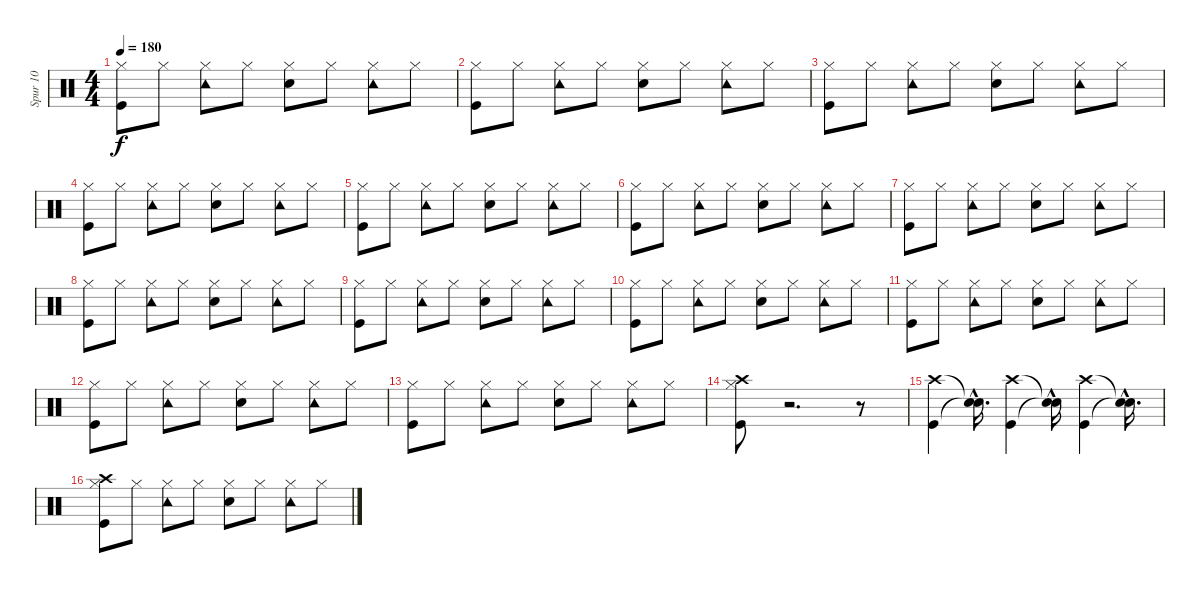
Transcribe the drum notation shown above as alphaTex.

\track ("Spur 10" "Spur 10") {instrument percussion}
\staff {score}
\articulation defaults
\ts (4 4)
\tempo 180
\clef neutral
\ks c
("Hi-Hat (closed)" "Kick (hit)").8{dy f} "Hi-Hat (closed)".8 ("Tambourine (hit)" "Hi-Hat (closed)").8 "Hi-Hat (closed)".8 ("Electric Snare (hit)" "Hi-Hat (closed)").8 "Hi-Hat (closed)".8 ("Tambourine (hit)" "Hi-Hat (closed)").8 "Hi-Hat (closed)".8 |
("Hi-Hat (closed)" "Kick (hit)").8 "Hi-Hat (closed)".8 ("Tambourine (hit)" "Hi-Hat (closed)").8 "Hi-Hat (closed)".8 ("Electric Snare (hit)" "Hi-Hat (closed)").8 "Hi-Hat (closed)".8 ("Tambourine (hit)" "Hi-Hat (closed)").8 "Hi-Hat (closed)".8 |
("Hi-Hat (closed)" "Kick (hit)").8 "Hi-Hat (closed)".8 ("Tambourine (hit)" "Hi-Hat (closed)").8 "Hi-Hat (closed)".8 ("Electric Snare (hit)" "Hi-Hat (closed)").8 "Hi-Hat (closed)".8 ("Tambourine (hit)" "Hi-Hat (closed)").8 "Hi-Hat (closed)".8 |
("Hi-Hat (closed)" "Kick (hit)").8 "Hi-Hat (closed)".8 ("Tambourine (hit)" "Hi-Hat (closed)").8 "Hi-Hat (closed)".8 ("Electric Snare (hit)" "Hi-Hat (closed)").8 "Hi-Hat (closed)".8 ("Tambourine (hit)" "Hi-Hat (closed)").8 "Hi-Hat (closed)".8 |
("Hi-Hat (closed)" "Kick (hit)").8 "Hi-Hat (closed)".8 ("Tambourine (hit)" "Hi-Hat (closed)").8 "Hi-Hat (closed)".8 ("Electric Snare (hit)" "Hi-Hat (closed)").8 "Hi-Hat (closed)".8 ("Tambourine (hit)" "Hi-Hat (closed)").8 "Hi-Hat (closed)".8 |
("Hi-Hat (closed)" "Kick (hit)").8 "Hi-Hat (closed)".8 ("Tambourine (hit)" "Hi-Hat (closed)").8 "Hi-Hat (closed)".8 ("Electric Snare (hit)" "Hi-Hat (closed)").8 "Hi-Hat (closed)".8 ("Tambourine (hit)" "Hi-Hat (closed)").8 "Hi-Hat (closed)".8 |
("Hi-Hat (closed)" "Kick (hit)").8 "Hi-Hat (closed)".8 ("Tambourine (hit)" "Hi-Hat (closed)").8 "Hi-Hat (closed)".8 ("Electric Snare (hit)" "Hi-Hat (closed)").8 "Hi-Hat (closed)".8 ("Tambourine (hit)" "Hi-Hat (closed)").8 "Hi-Hat (closed)".8 |
("Hi-Hat (closed)" "Kick (hit)").8 "Hi-Hat (closed)".8 ("Tambourine (hit)" "Hi-Hat (closed)").8 "Hi-Hat (closed)".8 ("Electric Snare (hit)" "Hi-Hat (closed)").8 "Hi-Hat (closed)".8 ("Tambourine (hit)" "Hi-Hat (closed)").8 "Hi-Hat (closed)".8 |
("Hi-Hat (closed)" "Kick (hit)").8 "Hi-Hat (closed)".8 ("Tambourine (hit)" "Hi-Hat (closed)").8 "Hi-Hat (closed)".8 ("Electric Snare (hit)" "Hi-Hat (closed)").8 "Hi-Hat (closed)".8 ("Tambourine (hit)" "Hi-Hat (closed)").8 "Hi-Hat (closed)".8 |
("Hi-Hat (closed)" "Kick (hit)").8 "Hi-Hat (closed)".8 ("Tambourine (hit)" "Hi-Hat (closed)").8 "Hi-Hat (closed)".8 ("Electric Snare (hit)" "Hi-Hat (closed)").8 "Hi-Hat (closed)".8 ("Tambourine (hit)" "Hi-Hat (closed)").8 "Hi-Hat (closed)".8 |
("Hi-Hat (closed)" "Kick (hit)").8 "Hi-Hat (closed)".8 ("Tambourine (hit)" "Hi-Hat (closed)").8 "Hi-Hat (closed)".8 ("Electric Snare (hit)" "Hi-Hat (closed)").8 "Hi-Hat (closed)".8 ("Tambourine (hit)" "Hi-Hat (closed)").8 "Hi-Hat (closed)".8 |
("Hi-Hat (closed)" "Kick (hit)").8 "Hi-Hat (closed)".8 ("Tambourine (hit)" "Hi-Hat (closed)").8 "Hi-Hat (closed)".8 ("Electric Snare (hit)" "Hi-Hat (closed)").8 "Hi-Hat (closed)".8 ("Tambourine (hit)" "Hi-Hat (closed)").8 "Hi-Hat (closed)".8 |
("Hi-Hat (closed)" "Kick (hit)").8 "Hi-Hat (closed)".8 ("Tambourine (hit)" "Hi-Hat (closed)").8 "Hi-Hat (closed)".8 ("Electric Snare (hit)" "Hi-Hat (closed)").8 "Hi-Hat (closed)".8 ("Tambourine (hit)" "Hi-Hat (closed)").8 "Hi-Hat (closed)".8 |
("Crash high (hit)" "Hi-Hat (closed)" "Kick (hit)").8 r.2{d} r.8 |
("Crash high (hit)" "Kick (hit)").4 ("Snare (hit)"{hac t} "Snare (hit)"{hac t}).16{d} ("Crash high (hit)" "Kick (hit)").4 ("Snare (hit)"{hac t} "Snare (hit)"{hac t}).16 ("Crash high (hit)" "Kick (hit)").4 ("Snare (hit)"{hac t} "Snare (hit)"{hac t}).16{d} |
("Crash high (hit)" "Hi-Hat (closed)" "Kick (hit)").8 "Hi-Hat (closed)".8 ("Tambourine (hit)" "Hi-Hat (closed)").8 "Hi-Hat (closed)".8 ("Electric Snare (hit)" "Hi-Hat (closed)").8 "Hi-Hat (closed)".8 ("Tambourine (hit)" "Hi-Hat (closed)").8 "Hi-Hat (closed)".8
